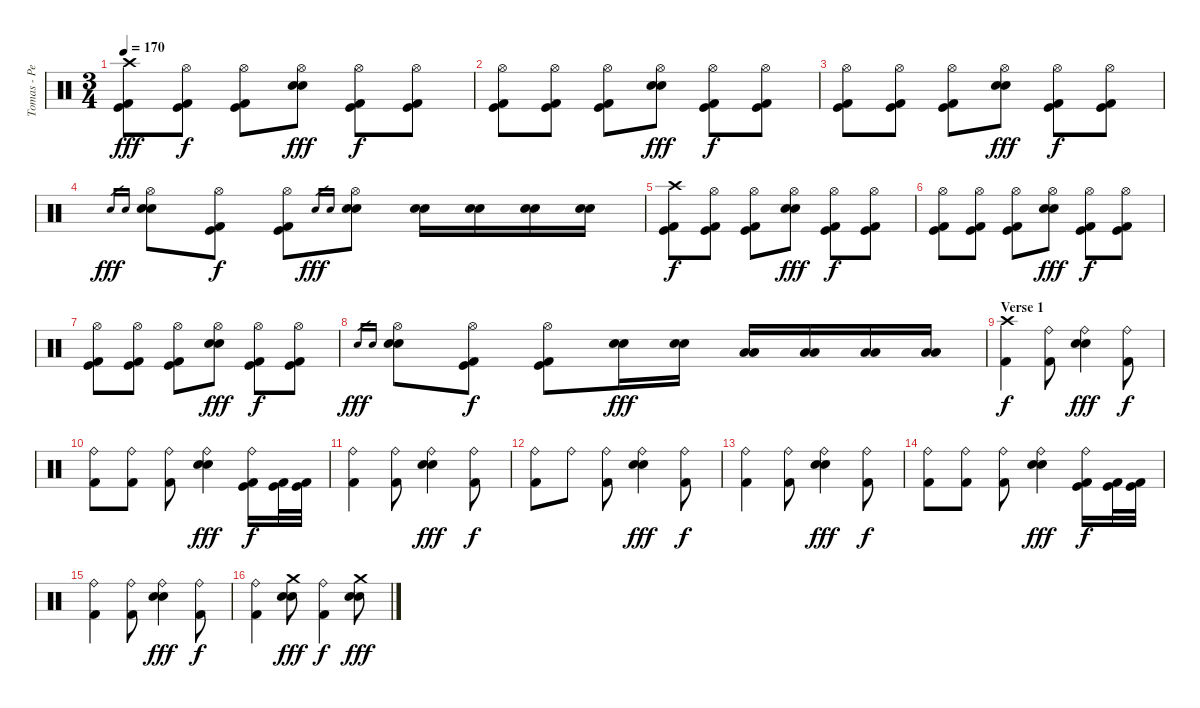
\track ("Tomas - Percussions" "Tomas - Pe") {instrument percussion}
\staff {score}
\articulation defaults
\ts (3 4)
\tempo 170
\clef neutral
\ks c
("Crash high (hit)" "Kick (hit)" "Kick (hit) 2").8{dy fff volume 16} ("Hi-Hat (open)" "Kick (hit)" "Kick (hit) 2").8{dy f} ("Hi-Hat (open)" "Kick (hit)" "Kick (hit) 2").8 ("Hi-Hat (open)" "Electric Snare (hit)" "Electric Snare (hit)").8{dy fff} ("Hi-Hat (open)" "Kick (hit)" "Kick (hit) 2").8{dy f} ("Hi-Hat (open)" "Kick (hit)" "Kick (hit) 2").8 |
("Hi-Hat (open)" "Kick (hit)" "Kick (hit) 2").8 ("Hi-Hat (open)" "Kick (hit)" "Kick (hit) 2").8 ("Hi-Hat (open)" "Kick (hit)" "Kick (hit) 2").8 ("Hi-Hat (open)" "Electric Snare (hit)" "Electric Snare (hit)").8{dy fff} ("Hi-Hat (open)" "Kick (hit)" "Kick (hit) 2").8{dy f} ("Hi-Hat (open)" "Kick (hit)" "Kick (hit) 2").8 |
("Hi-Hat (open)" "Kick (hit)" "Kick (hit) 2").8 ("Hi-Hat (open)" "Kick (hit)" "Kick (hit) 2").8 ("Hi-Hat (open)" "Kick (hit)" "Kick (hit) 2").8 ("Hi-Hat (open)" "Electric Snare (hit)" "Electric Snare (hit)").8{dy fff} ("Hi-Hat (open)" "Kick (hit)" "Kick (hit) 2").8{dy f} ("Hi-Hat (open)" "Kick (hit)" "Kick (hit) 2").8 |
"Electric Snare (hit)".16{gr dy fff} "Electric Snare (hit)".16{gr} ("Hi-Hat (open)" "Electric Snare (hit)" "Electric Snare (hit)").8 ("Hi-Hat (open)" "Kick (hit)" "Kick (hit) 2").8{dy f} ("Hi-Hat (open)" "Kick (hit)" "Kick (hit) 2").8 "Electric Snare (hit)".16{gr dy fff} "Electric Snare (hit)".16{gr} ("Hi-Hat (open)" "Electric Snare (hit)" "Electric Snare (hit)").8 ("Electric Snare (hit)" "Electric Snare (hit)").16 ("Electric Snare (hit)" "Electric Snare (hit)").16 ("Electric Snare (hit)" "Electric Snare (hit)").16 ("Electric Snare (hit)" "Electric Snare (hit)").16 |
("Crash high (hit)" "Kick (hit)" "Kick (hit) 2").8{dy f} ("Hi-Hat (open)" "Kick (hit)" "Kick (hit) 2").8 ("Hi-Hat (open)" "Kick (hit)" "Kick (hit) 2").8 ("Hi-Hat (open)" "Electric Snare (hit)" "Electric Snare (hit)").8{dy fff} ("Hi-Hat (open)" "Kick (hit)" "Kick (hit) 2").8{dy f} ("Hi-Hat (open)" "Kick (hit)" "Kick (hit) 2").8 |
("Hi-Hat (open)" "Kick (hit)" "Kick (hit) 2").8 ("Hi-Hat (open)" "Kick (hit)" "Kick (hit) 2").8 ("Hi-Hat (open)" "Kick (hit)" "Kick (hit) 2").8 ("Hi-Hat (open)" "Electric Snare (hit)" "Electric Snare (hit)").8{dy fff} ("Hi-Hat (open)" "Kick (hit)" "Kick (hit) 2").8{dy f} ("Hi-Hat (open)" "Kick (hit)" "Kick (hit) 2").8 |
("Hi-Hat (open)" "Kick (hit)" "Kick (hit) 2").8 ("Hi-Hat (open)" "Kick (hit)" "Kick (hit) 2").8 ("Hi-Hat (open)" "Kick (hit)" "Kick (hit) 2").8 ("Hi-Hat (open)" "Electric Snare (hit)" "Electric Snare (hit)").8{dy fff} ("Hi-Hat (open)" "Kick (hit)" "Kick (hit) 2").8{dy f} ("Hi-Hat (open)" "Kick (hit)" "Kick (hit) 2").8 |
"Electric Snare (hit)".16{gr dy fff} "Electric Snare (hit)".16{gr} ("Hi-Hat (open)" "Electric Snare (hit)" "Electric Snare (hit)").8 ("Hi-Hat (open)" "Kick (hit)" "Kick (hit) 2").8{dy f} ("Hi-Hat (open)" "Kick (hit)" "Kick (hit) 2").8 ("Electric Snare (hit)" "Electric Snare (hit)").16{dy fff} ("Electric Snare (hit)" "Electric Snare (hit)").16 ("Low Tom (hit)" "Low Tom (hit)").16 ("Low Tom (hit)" "Low Tom (hit)").16 ("Low Floor Tom (hit)" "Low Floor Tom (hit)").16 ("Low Floor Tom (hit)" "Low Floor Tom (hit)").16 |
\section ("" "Verse 1")
("Crash high (hit)" "Kick (hit) 2").4{dy f} ("Ride (bell)" "Kick (hit) 2").8 ("Ride (bell)" "Electric Snare (hit)" "Electric Snare (hit)").4{dy fff} ("Ride (bell)" "Kick (hit) 2").8{dy f} |
("Ride (bell)" "Kick (hit) 2").8 ("Ride (bell)" "Kick (hit) 2").8 ("Ride (bell)" "Kick (hit) 2").8 ("Ride (bell)" "Electric Snare (hit)" "Electric Snare (hit)").4{dy fff} ("Ride (bell)" "Kick (hit)" "Kick (hit) 2").16{dy f} ("Kick (hit)" "Kick (hit) 2").32 ("Kick (hit)" "Kick (hit) 2").32 |
("Ride (bell)" "Kick (hit) 2").4 ("Ride (bell)" "Kick (hit) 2").8 ("Ride (bell)" "Electric Snare (hit)" "Electric Snare (hit)").4{dy fff} ("Ride (bell)" "Kick (hit) 2").8{dy f} |
("Ride (bell)" "Kick (hit) 2").8 "Ride (bell)".8 ("Ride (bell)" "Kick (hit) 2").8 ("Ride (bell)" "Electric Snare (hit)" "Electric Snare (hit)").4{dy fff} ("Ride (bell)" "Kick (hit) 2").8{dy f} |
("Ride (bell)" "Kick (hit) 2").4 ("Ride (bell)" "Kick (hit) 2").8 ("Ride (bell)" "Electric Snare (hit)" "Electric Snare (hit)").4{dy fff} ("Ride (bell)" "Kick (hit) 2").8{dy f} |
("Ride (bell)" "Kick (hit) 2").8 ("Ride (bell)" "Kick (hit) 2").8 ("Ride (bell)" "Kick (hit) 2").8 ("Ride (bell)" "Electric Snare (hit)" "Electric Snare (hit)").4{dy fff} ("Ride (bell)" "Kick (hit)" "Kick (hit) 2").16{dy f} ("Kick (hit)" "Kick (hit) 2").32 ("Kick (hit)" "Kick (hit) 2").32 |
("Ride (bell)" "Kick (hit) 2").4 ("Ride (bell)" "Kick (hit) 2").8 ("Ride (bell)" "Electric Snare (hit)" "Electric Snare (hit)").4{dy fff} ("Ride (bell)" "Kick (hit) 2").8{dy f} |
("Ride (bell)" "Kick (hit) 2").4 ("Crash medium (hit)" "Electric Snare (hit)" "Electric Snare (hit)").8{dy fff} ("Ride (bell)" "Kick (hit) 2").4{dy f} ("Crash medium (hit)" "Electric Snare (hit)" "Electric Snare (hit)").8{dy fff}
